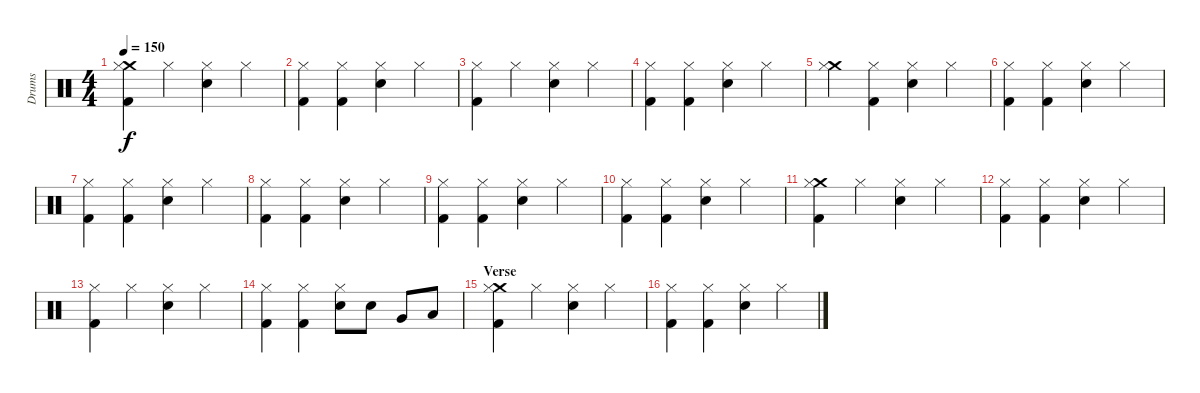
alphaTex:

\track ("Drums" "Drums") {instrument percussion}
\staff {score}
\articulation defaults
\ts (4 4)
\tempo 150
\clef neutral
\ks c
("Kick (hit) 2" "Crash medium (hit)" "Hi-Hat (closed)").4{dy f} "Hi-Hat (closed)".4 ("Hi-Hat (closed)" "Snare (hit) 2").4 "Hi-Hat (closed)".4 |
("Kick (hit) 2" "Hi-Hat (closed)").4 ("Hi-Hat (closed)" "Kick (hit) 2").4 ("Hi-Hat (closed)" "Snare (hit) 2").4 "Hi-Hat (closed)".4 |
("Kick (hit) 2" "Hi-Hat (closed)").4 "Hi-Hat (closed)".4 ("Hi-Hat (closed)" "Snare (hit) 2").4 "Hi-Hat (closed)".4 |
("Kick (hit) 2" "Hi-Hat (closed)").4 ("Hi-Hat (closed)" "Kick (hit) 2").4 ("Hi-Hat (closed)" "Snare (hit) 2").4 "Hi-Hat (closed)".4 |
("Crash medium (hit)" "Hi-Hat (closed)").4 ("Hi-Hat (closed)" "Kick (hit) 2").4 ("Hi-Hat (closed)" "Snare (hit) 2").4 "Hi-Hat (closed)".4 |
("Kick (hit) 2" "Hi-Hat (closed)").4 ("Hi-Hat (closed)" "Kick (hit) 2").4 ("Hi-Hat (closed)" "Snare (hit) 2").4 "Hi-Hat (closed)".4 |
("Kick (hit) 2" "Hi-Hat (closed)").4 ("Hi-Hat (closed)" "Kick (hit) 2").4 ("Hi-Hat (closed)" "Snare (hit) 2").4 "Hi-Hat (closed)".4 |
("Kick (hit) 2" "Hi-Hat (closed)").4 ("Hi-Hat (closed)" "Kick (hit) 2").4 ("Hi-Hat (closed)" "Snare (hit) 2").4 "Hi-Hat (closed)".4 |
("Kick (hit) 2" "Hi-Hat (closed)").4 ("Hi-Hat (closed)" "Kick (hit) 2").4 ("Hi-Hat (closed)" "Snare (hit) 2").4 "Hi-Hat (closed)".4 |
("Kick (hit) 2" "Hi-Hat (closed)").4 ("Hi-Hat (closed)" "Kick (hit) 2").4 ("Hi-Hat (closed)" "Snare (hit) 2").4 "Hi-Hat (closed)".4 |
("Kick (hit) 2" "Crash medium (hit)" "Hi-Hat (closed)").4 "Hi-Hat (closed)".4 ("Hi-Hat (closed)" "Snare (hit) 2").4 "Hi-Hat (closed)".4 |
("Kick (hit) 2" "Hi-Hat (closed)").4 ("Hi-Hat (closed)" "Kick (hit) 2").4 ("Hi-Hat (closed)" "Snare (hit) 2").4 "Hi-Hat (closed)".4 |
("Kick (hit) 2" "Hi-Hat (closed)").4 "Hi-Hat (closed)".4 ("Hi-Hat (closed)" "Snare (hit) 2").4 "Hi-Hat (closed)".4 |
("Kick (hit) 2" "Hi-Hat (closed)").4 ("Hi-Hat (closed)" "Kick (hit) 2").4 ("Hi-Hat (closed)" "Snare (hit) 2").8 "Snare (hit) 2".8 "Very Low Tom (hit)".8 "Low Floor Tom (hit)".8 |
\section ("" "Verse")
("Kick (hit) 2" "Crash medium (hit)" "Hi-Hat (closed)").4 "Hi-Hat (closed)".4 ("Hi-Hat (closed)" "Snare (hit) 2").4 "Hi-Hat (closed)".4 |
("Kick (hit) 2" "Hi-Hat (closed)").4 ("Hi-Hat (closed)" "Kick (hit) 2").4 ("Hi-Hat (closed)" "Snare (hit) 2").4 "Hi-Hat (closed)".4
